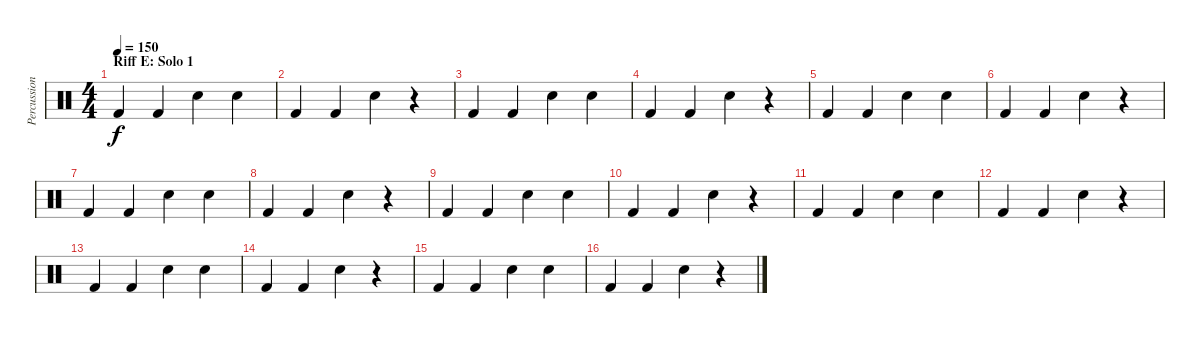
\track ("Percussion" "Percussion") {instrument percussion}
\staff {score}
\articulation defaults
\ts (4 4)
\section ("" "Riff E: Solo 1")
\tempo 150
\clef neutral
\ks c "Kick (hit) 2".4{dy f} "Kick (hit) 2".4 "Electric Snare (hit)".4 "Snare (hit) 2".4
|
"Kick (hit) 2".4 "Kick (hit) 2".4 "Snare (hit) 2".4 r.4 |
"Kick (hit) 2".4 "Kick (hit) 2".4 "Electric Snare (hit)".4 "Snare (hit) 2".4 |
"Kick (hit) 2".4 "Kick (hit) 2".4 "Snare (hit) 2".4 r.4 |
"Kick (hit) 2".4 "Kick (hit) 2".4 "Electric Snare (hit)".4 "Snare (hit) 2".4 |
"Kick (hit) 2".4 "Kick (hit) 2".4 "Snare (hit) 2".4 r.4 |
"Kick (hit) 2".4 "Kick (hit) 2".4 "Electric Snare (hit)".4 "Snare (hit) 2".4 |
"Kick (hit) 2".4 "Kick (hit) 2".4 "Snare (hit) 2".4 r.4 |
"Kick (hit) 2".4 "Kick (hit) 2".4 "Electric Snare (hit)".4 "Snare (hit) 2".4 |
"Kick (hit) 2".4 "Kick (hit) 2".4 "Snare (hit) 2".4 r.4 |
"Kick (hit) 2".4 "Kick (hit) 2".4 "Electric Snare (hit)".4 "Snare (hit) 2".4 |
"Kick (hit) 2".4 "Kick (hit) 2".4 "Snare (hit) 2".4 r.4 |
"Kick (hit) 2".4 "Kick (hit) 2".4 "Electric Snare (hit)".4 "Snare (hit) 2".4 |
"Kick (hit) 2".4 "Kick (hit) 2".4 "Snare (hit) 2".4 r.4 |
"Kick (hit) 2".4 "Kick (hit) 2".4 "Electric Snare (hit)".4 "Snare (hit) 2".4 |
"Kick (hit) 2".4 "Kick (hit) 2".4 "Snare (hit) 2".4 r.4
